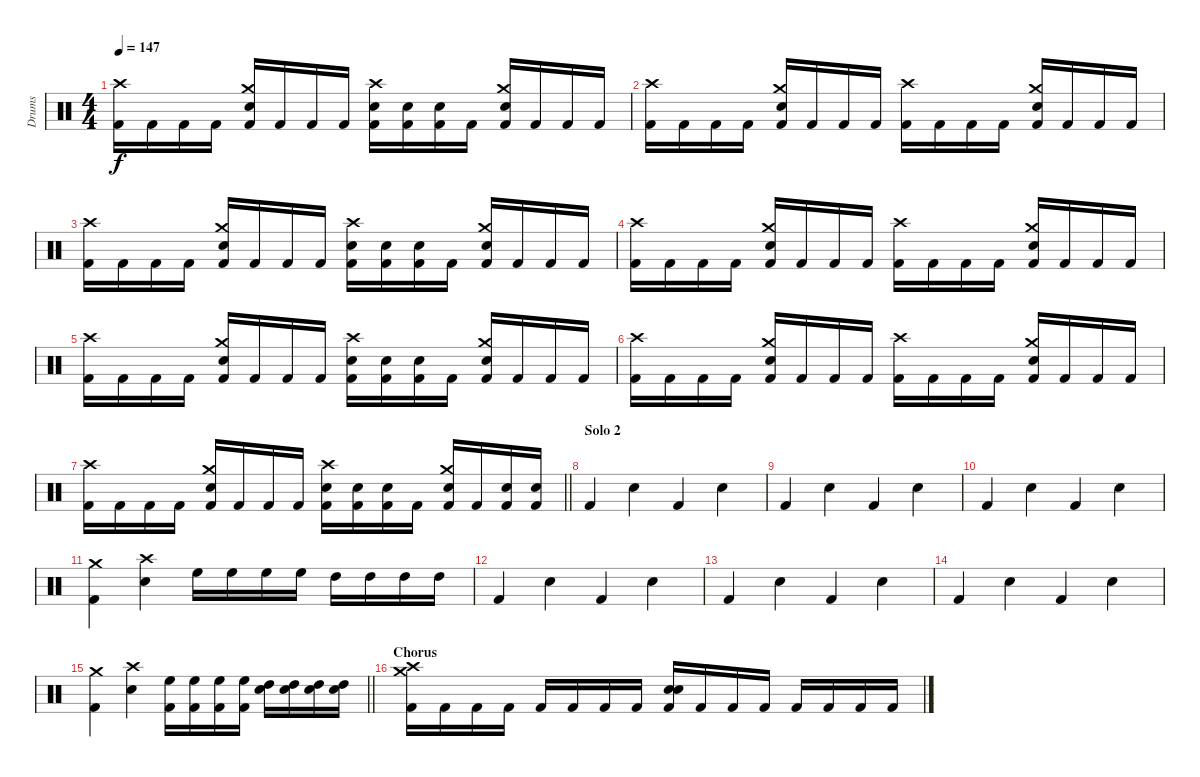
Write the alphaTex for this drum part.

\track ("Drums" "Drums") {instrument percussion}
\staff
\articulation defaults
\ts (4 4)
\tempo 147
\clef neutral
\ks c
("Crash high (hit)" "Kick (hit) 2").16{dy f} "Kick (hit) 2".16 "Kick (hit) 2".16 "Kick (hit) 2".16 ("Crash medium (hit)" "Kick (hit) 2" "Electric Snare (hit)").16 "Kick (hit) 2".16 "Kick (hit) 2".16 "Kick (hit) 2".16 ("Crash high (hit)" "Kick (hit) 2" "Electric Snare (hit)").16 ("Kick (hit) 2" "Electric Snare (hit)").16 ("Kick (hit) 2" "Electric Snare (hit)").16 "Kick (hit) 2".16 ("Crash medium (hit)" "Kick (hit) 2" "Electric Snare (hit)").16 "Kick (hit) 2".16 "Kick (hit) 2".16 "Kick (hit) 2".16 |
("Crash high (hit)" "Kick (hit) 2").16 "Kick (hit) 2".16 "Kick (hit) 2".16 "Kick (hit) 2".16 ("Crash medium (hit)" "Kick (hit) 2" "Electric Snare (hit)").16 "Kick (hit) 2".16 "Kick (hit) 2".16 "Kick (hit) 2".16 ("Crash high (hit)" "Kick (hit) 2").16 "Kick (hit) 2".16 "Kick (hit) 2".16 "Kick (hit) 2".16 ("Crash medium (hit)" "Kick (hit) 2" "Electric Snare (hit)").16 "Kick (hit) 2".16 "Kick (hit) 2".16 "Kick (hit) 2".16 |
("Crash high (hit)" "Kick (hit) 2").16 "Kick (hit) 2".16 "Kick (hit) 2".16 "Kick (hit) 2".16 ("Crash medium (hit)" "Kick (hit) 2" "Electric Snare (hit)").16 "Kick (hit) 2".16 "Kick (hit) 2".16 "Kick (hit) 2".16 ("Crash high (hit)" "Kick (hit) 2" "Electric Snare (hit)").16 ("Kick (hit) 2" "Electric Snare (hit)").16 ("Kick (hit) 2" "Electric Snare (hit)").16 "Kick (hit) 2".16 ("Crash medium (hit)" "Kick (hit) 2" "Electric Snare (hit)").16 "Kick (hit) 2".16 "Kick (hit) 2".16 "Kick (hit) 2".16 |
("Crash high (hit)" "Kick (hit) 2").16 "Kick (hit) 2".16 "Kick (hit) 2".16 "Kick (hit) 2".16 ("Crash medium (hit)" "Kick (hit) 2" "Electric Snare (hit)").16 "Kick (hit) 2".16 "Kick (hit) 2".16 "Kick (hit) 2".16 ("Crash high (hit)" "Kick (hit) 2").16 "Kick (hit) 2".16 "Kick (hit) 2".16 "Kick (hit) 2".16 ("Crash medium (hit)" "Kick (hit) 2" "Electric Snare (hit)").16 "Kick (hit) 2".16 "Kick (hit) 2".16 "Kick (hit) 2".16 |
("Crash high (hit)" "Kick (hit) 2").16 "Kick (hit) 2".16 "Kick (hit) 2".16 "Kick (hit) 2".16 ("Crash medium (hit)" "Kick (hit) 2" "Electric Snare (hit)").16 "Kick (hit) 2".16 "Kick (hit) 2".16 "Kick (hit) 2".16 ("Crash high (hit)" "Kick (hit) 2" "Electric Snare (hit)").16 ("Kick (hit) 2" "Electric Snare (hit)").16 ("Kick (hit) 2" "Electric Snare (hit)").16 "Kick (hit) 2".16 ("Crash medium (hit)" "Kick (hit) 2" "Electric Snare (hit)").16 "Kick (hit) 2".16 "Kick (hit) 2".16 "Kick (hit) 2".16 |
("Crash high (hit)" "Kick (hit) 2").16 "Kick (hit) 2".16 "Kick (hit) 2".16 "Kick (hit) 2".16 ("Crash medium (hit)" "Kick (hit) 2" "Electric Snare (hit)").16 "Kick (hit) 2".16 "Kick (hit) 2".16 "Kick (hit) 2".16 ("Crash high (hit)" "Kick (hit) 2").16 "Kick (hit) 2".16 "Kick (hit) 2".16 "Kick (hit) 2".16 ("Crash medium (hit)" "Kick (hit) 2" "Electric Snare (hit)").16 "Kick (hit) 2".16 "Kick (hit) 2".16 "Kick (hit) 2".16 |
\barLineRight lightlight
("Crash high (hit)" "Kick (hit) 2").16 "Kick (hit) 2".16 "Kick (hit) 2".16 "Kick (hit) 2".16 ("Crash medium (hit)" "Kick (hit) 2" "Electric Snare (hit)").16 "Kick (hit) 2".16 "Kick (hit) 2".16 "Kick (hit) 2".16 ("Crash high (hit)" "Kick (hit) 2" "Electric Snare (hit)").16 ("Kick (hit) 2" "Electric Snare (hit)").16 ("Kick (hit) 2" "Electric Snare (hit)").16 "Kick (hit) 2".16 ("Crash medium (hit)" "Kick (hit) 2" "Electric Snare (hit)").16 "Kick (hit) 2".16 ("Kick (hit) 2" "Electric Snare (hit)").16 ("Kick (hit) 2" "Electric Snare (hit)").16 |
\section ("" "Solo 2")
"Kick (hit) 2".4 "Snare (hit) 2".4 "Kick (hit) 2".4 "Snare (hit) 2".4 |
"Kick (hit) 2".4 "Snare (hit) 2".4 "Kick (hit) 2".4 "Snare (hit) 2".4 |
"Kick (hit) 2".4 "Snare (hit) 2".4 "Kick (hit) 2".4 "Snare (hit) 2".4 |
("Crash medium (hit)" "Kick (hit) 2").4 ("Crash high (hit)" "Snare (hit) 2").4 "High Floor Tom (hit)".16 "High Floor Tom (hit)".16 "High Floor Tom (hit)".16 "High Floor Tom (hit)".16 "High Tom (hit)".16 "High Tom (hit)".16 "High Tom (hit)".16 "High Tom (hit)".16 |
"Kick (hit) 2".4 "Snare (hit) 2".4 "Kick (hit) 2".4 "Snare (hit) 2".4 |
"Kick (hit) 2".4 "Snare (hit) 2".4 "Kick (hit) 2".4 "Snare (hit) 2".4 |
"Kick (hit) 2".4 "Snare (hit) 2".4 "Kick (hit) 2".4 "Snare (hit) 2".4 |
\barLineRight lightlight
("Crash medium (hit)" "Kick (hit) 2").4 ("Crash high (hit)" "Snare (hit) 2").4 ("High Floor Tom (hit)" "Kick (hit) 2").16 ("High Floor Tom (hit)" "Kick (hit) 2").16 ("High Floor Tom (hit)" "Kick (hit) 2").16 ("High Floor Tom (hit)" "Kick (hit) 2").16 ("High Tom (hit)" "Snare (hit) 2").16 ("High Tom (hit)" "Snare (hit) 2").16 ("High Tom (hit)" "Snare (hit) 2").16 ("High Tom (hit)" "Snare (hit) 2").16 |
\section ("" "Chorus")
("Crash high (hit)" "Kick (hit) 2" "Crash medium (hit)").16 "Kick (hit) 2".16 "Kick (hit) 2".16 "Kick (hit) 2".16 "Kick (hit) 2".16 "Kick (hit) 2".16 "Kick (hit) 2".16 "Kick (hit) 2".16 ("Kick (hit) 2" "Electric Snare (hit)" "Snare (hit) 2").16 "Kick (hit) 2".16 "Kick (hit) 2".16 "Kick (hit) 2".16 "Kick (hit) 2".16 "Kick (hit) 2".16 "Kick (hit) 2".16 "Kick (hit) 2".16
